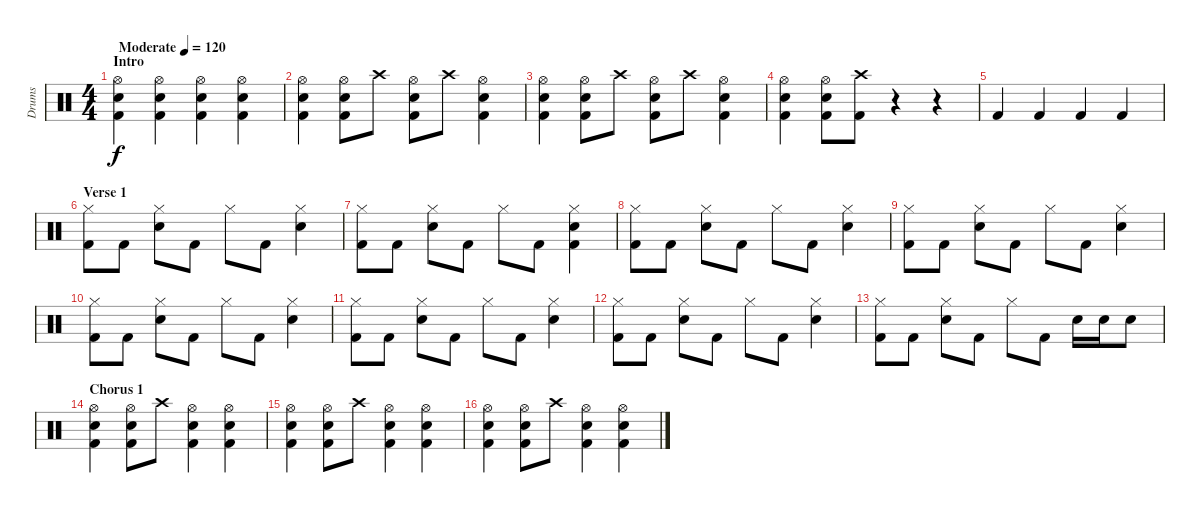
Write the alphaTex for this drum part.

\track ("Drums" "Drums") {instrument percussion}
\staff {score}
\articulation defaults
\ts (4 4)
\section ("" "Intro")
\tempo (120 "Moderate")
\clef neutral
\ks c
("Hi-Hat (open)" "Snare (hit) 2" "Kick (hit) 2").4{dy f} ("Hi-Hat (open)" "Snare (hit) 2" "Kick (hit) 2").4 ("Hi-Hat (open)" "Snare (hit) 2" "Kick (hit) 2").4 ("Hi-Hat (open)" "Snare (hit) 2" "Kick (hit) 2").4 |
("Hi-Hat (open)" "Snare (hit) 2" "Kick (hit) 2").4 ("Hi-Hat (open)" "Snare (hit) 2" "Kick (hit) 2").8 "Crash high (hit)".8 ("Hi-Hat (open)" "Snare (hit) 2" "Kick (hit) 2").8 "Crash high (hit)".8 ("Hi-Hat (open)" "Snare (hit) 2" "Kick (hit) 2").4 |
("Hi-Hat (open)" "Snare (hit) 2" "Kick (hit) 2").4 ("Hi-Hat (open)" "Snare (hit) 2" "Kick (hit) 2").8 "Crash high (hit)".8 ("Hi-Hat (open)" "Snare (hit) 2" "Kick (hit) 2").8 "Crash high (hit)".8 ("Hi-Hat (open)" "Snare (hit) 2" "Kick (hit) 2").4 |
("Hi-Hat (open)" "Snare (hit) 2" "Kick (hit) 2").4 ("Hi-Hat (open)" "Snare (hit) 2" "Kick (hit) 2").8 ("Crash high (hit)" "Kick (hit) 2").8 r.4 r.4 |
"Kick (hit) 2".4 "Kick (hit) 2".4 "Kick (hit) 2".4 "Kick (hit) 2".4 |
\section ("" "Verse 1")
("Hi-Hat (closed)" "Kick (hit) 2").8 "Kick (hit) 2".8 ("Hi-Hat (closed)" "Snare (hit) 2").8 "Kick (hit) 2".8 "Hi-Hat (closed)".8 "Kick (hit) 2".8 ("Hi-Hat (closed)" "Snare (hit) 2").4 |
("Hi-Hat (closed)" "Kick (hit) 2").8 "Kick (hit) 2".8 ("Hi-Hat (closed)" "Snare (hit) 2").8 "Kick (hit) 2".8 "Hi-Hat (closed)".8 "Kick (hit) 2".8 ("Hi-Hat (closed)" "Snare (hit) 2" "Kick (hit) 2").4 |
("Hi-Hat (closed)" "Kick (hit) 2").8 "Kick (hit) 2".8 ("Hi-Hat (closed)" "Snare (hit) 2").8 "Kick (hit) 2".8 "Hi-Hat (closed)".8 "Kick (hit) 2".8 ("Hi-Hat (closed)" "Snare (hit) 2").4 |
("Hi-Hat (closed)" "Kick (hit) 2").8 "Kick (hit) 2".8 ("Hi-Hat (closed)" "Snare (hit) 2").8 "Kick (hit) 2".8 "Hi-Hat (closed)".8 "Kick (hit) 2".8 ("Hi-Hat (closed)" "Snare (hit) 2").4 |
("Hi-Hat (closed)" "Kick (hit) 2").8 "Kick (hit) 2".8 ("Hi-Hat (closed)" "Snare (hit) 2").8 "Kick (hit) 2".8 "Hi-Hat (closed)".8 "Kick (hit) 2".8 ("Hi-Hat (closed)" "Snare (hit) 2").4 |
("Hi-Hat (closed)" "Kick (hit) 2").8 "Kick (hit) 2".8 ("Hi-Hat (closed)" "Snare (hit) 2").8 "Kick (hit) 2".8 "Hi-Hat (closed)".8 "Kick (hit) 2".8 ("Hi-Hat (closed)" "Snare (hit) 2").4 |
("Hi-Hat (closed)" "Kick (hit) 2").8 "Kick (hit) 2".8 ("Hi-Hat (closed)" "Snare (hit) 2").8 "Kick (hit) 2".8 "Hi-Hat (closed)".8 "Kick (hit) 2".8 ("Hi-Hat (closed)" "Snare (hit) 2").4 |
("Hi-Hat (closed)" "Kick (hit) 2").8 "Kick (hit) 2".8 ("Hi-Hat (closed)" "Snare (hit) 2").8 "Kick (hit) 2".8 "Hi-Hat (closed)".8 "Kick (hit) 2".8 "Snare (hit) 2".16 "Snare (hit) 2".16 "Snare (hit) 2".8 |
\section ("" "Chorus 1")
("Hi-Hat (open)" "Snare (hit) 2" "Kick (hit) 2").4 ("Hi-Hat (open)" "Snare (hit) 2" "Kick (hit) 2").8 "Crash high (hit)".8 ("Hi-Hat (open)" "Snare (hit) 2" "Kick (hit) 2").4 ("Hi-Hat (open)" "Snare (hit) 2" "Kick (hit) 2").4 |
("Hi-Hat (open)" "Snare (hit) 2" "Kick (hit) 2").4 ("Hi-Hat (open)" "Snare (hit) 2" "Kick (hit) 2").8 "Crash high (hit)".8 ("Hi-Hat (open)" "Snare (hit) 2" "Kick (hit) 2").4 ("Hi-Hat (open)" "Snare (hit) 2" "Kick (hit) 2").4 |
("Hi-Hat (open)" "Snare (hit) 2" "Kick (hit) 2").4 ("Hi-Hat (open)" "Snare (hit) 2" "Kick (hit) 2").8 "Crash high (hit)".8 ("Hi-Hat (open)" "Snare (hit) 2" "Kick (hit) 2").4 ("Hi-Hat (open)" "Snare (hit) 2" "Kick (hit) 2").4
